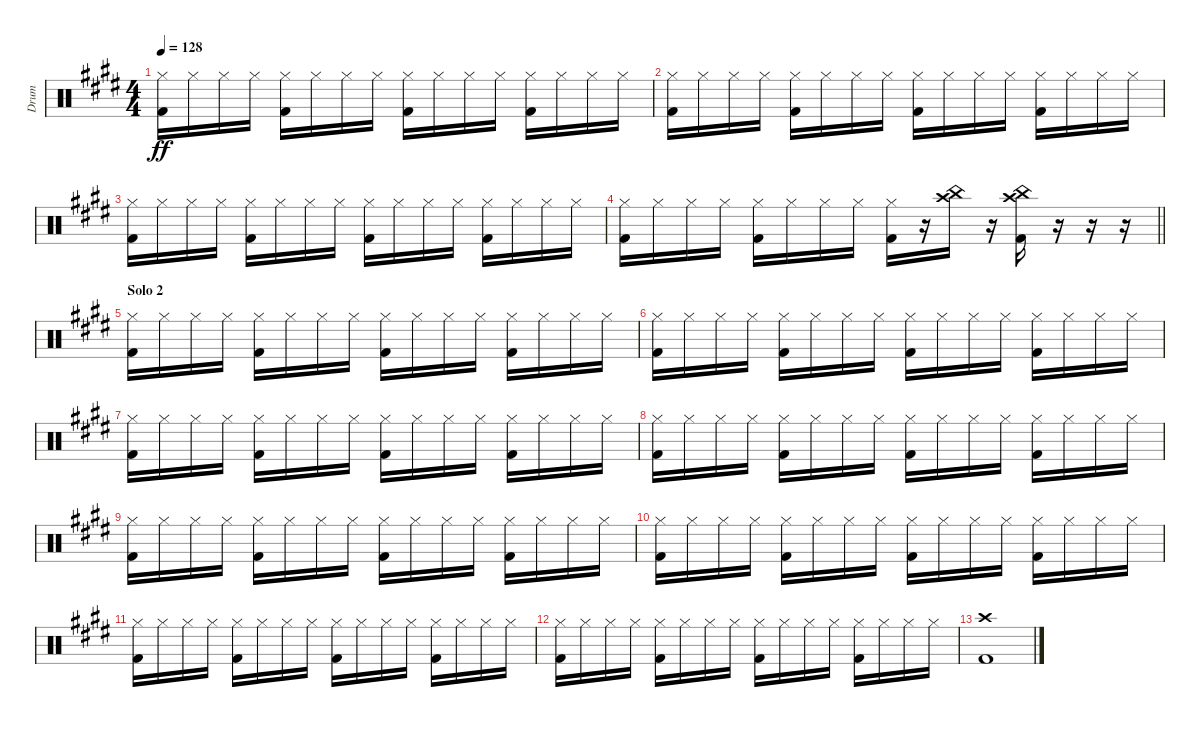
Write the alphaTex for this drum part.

\track ("Drum" "Drum") {instrument percussion}
\staff {score}
\articulation defaults
\ts (4 4)
\tempo 128
\clef neutral
\ks c#minor
("Hi-Hat (closed)" "Kick (hit) 2").16{dy ff} "Hi-Hat (closed)".16 "Hi-Hat (closed)".16 "Hi-Hat (closed)".16 ("Hi-Hat (closed)" "Kick (hit) 2").16 "Hi-Hat (closed)".16 "Hi-Hat (closed)".16 "Hi-Hat (closed)".16 ("Hi-Hat (closed)" "Kick (hit) 2").16 "Hi-Hat (closed)".16 "Hi-Hat (closed)".16 "Hi-Hat (closed)".16 ("Hi-Hat (closed)" "Kick (hit) 2").16 "Hi-Hat (closed)".16 "Hi-Hat (closed)".16 "Hi-Hat (closed)".16 |
("Hi-Hat (closed)" "Kick (hit) 2").16 "Hi-Hat (closed)".16 "Hi-Hat (closed)".16 "Hi-Hat (closed)".16 ("Hi-Hat (closed)" "Kick (hit) 2").16 "Hi-Hat (closed)".16 "Hi-Hat (closed)".16 "Hi-Hat (closed)".16 ("Hi-Hat (closed)" "Kick (hit) 2").16 "Hi-Hat (closed)".16 "Hi-Hat (closed)".16 "Hi-Hat (closed)".16 ("Hi-Hat (closed)" "Kick (hit) 2").16 "Hi-Hat (closed)".16 "Hi-Hat (closed)".16 "Hi-Hat (closed)".16 |
("Hi-Hat (closed)" "Kick (hit) 2").16 "Hi-Hat (closed)".16 "Hi-Hat (closed)".16 "Hi-Hat (closed)".16 ("Hi-Hat (closed)" "Kick (hit) 2").16 "Hi-Hat (closed)".16 "Hi-Hat (closed)".16 "Hi-Hat (closed)".16 ("Hi-Hat (closed)" "Kick (hit) 2").16 "Hi-Hat (closed)".16 "Hi-Hat (closed)".16 "Hi-Hat (closed)".16 ("Hi-Hat (closed)" "Kick (hit) 2").16 "Hi-Hat (closed)".16 "Hi-Hat (closed)".16 "Hi-Hat (closed)".16 |
\barLineRight lightlight
("Hi-Hat (closed)" "Kick (hit) 2").16 "Hi-Hat (closed)".16 "Hi-Hat (closed)".16 "Hi-Hat (closed)".16 ("Hi-Hat (closed)" "Kick (hit) 2").16 "Hi-Hat (closed)".16 "Hi-Hat (closed)".16 "Hi-Hat (closed)".16 ("Hi-Hat (closed)" "Kick (hit) 2").16 r.16 ("Crash high (hit)" "China (hit)").16 r.16 ("Crash high (hit)" "China (hit)" "Kick (hit) 2").16 r.16 r.16 r.16 |
\section ("" "Solo 2")
("Hi-Hat (closed)" "Kick (hit) 2").16 "Hi-Hat (closed)".16 "Hi-Hat (closed)".16 "Hi-Hat (closed)".16 ("Hi-Hat (closed)" "Kick (hit) 2").16 "Hi-Hat (closed)".16 "Hi-Hat (closed)".16 "Hi-Hat (closed)".16 ("Hi-Hat (closed)" "Kick (hit) 2").16 "Hi-Hat (closed)".16 "Hi-Hat (closed)".16 "Hi-Hat (closed)".16 ("Hi-Hat (closed)" "Kick (hit) 2").16 "Hi-Hat (closed)".16 "Hi-Hat (closed)".16 "Hi-Hat (closed)".16 |
("Hi-Hat (closed)" "Kick (hit) 2").16 "Hi-Hat (closed)".16 "Hi-Hat (closed)".16 "Hi-Hat (closed)".16 ("Hi-Hat (closed)" "Kick (hit) 2").16 "Hi-Hat (closed)".16 "Hi-Hat (closed)".16 "Hi-Hat (closed)".16 ("Hi-Hat (closed)" "Kick (hit) 2").16 "Hi-Hat (closed)".16 "Hi-Hat (closed)".16 "Hi-Hat (closed)".16 ("Hi-Hat (closed)" "Kick (hit) 2").16 "Hi-Hat (closed)".16 "Hi-Hat (closed)".16 "Hi-Hat (closed)".16 |
("Hi-Hat (closed)" "Kick (hit) 2").16 "Hi-Hat (closed)".16 "Hi-Hat (closed)".16 "Hi-Hat (closed)".16 ("Hi-Hat (closed)" "Kick (hit) 2").16 "Hi-Hat (closed)".16 "Hi-Hat (closed)".16 "Hi-Hat (closed)".16 ("Hi-Hat (closed)" "Kick (hit) 2").16 "Hi-Hat (closed)".16 "Hi-Hat (closed)".16 "Hi-Hat (closed)".16 ("Hi-Hat (closed)" "Kick (hit) 2").16 "Hi-Hat (closed)".16 "Hi-Hat (closed)".16 "Hi-Hat (closed)".16 |
("Hi-Hat (closed)" "Kick (hit) 2").16 "Hi-Hat (closed)".16 "Hi-Hat (closed)".16 "Hi-Hat (closed)".16 ("Hi-Hat (closed)" "Kick (hit) 2").16 "Hi-Hat (closed)".16 "Hi-Hat (closed)".16 "Hi-Hat (closed)".16 ("Hi-Hat (closed)" "Kick (hit) 2").16 "Hi-Hat (closed)".16 "Hi-Hat (closed)".16 "Hi-Hat (closed)".16 ("Hi-Hat (closed)" "Kick (hit) 2").16 "Hi-Hat (closed)".16 "Hi-Hat (closed)".16 "Hi-Hat (closed)".16 |
("Hi-Hat (closed)" "Kick (hit) 2").16 "Hi-Hat (closed)".16 "Hi-Hat (closed)".16 "Hi-Hat (closed)".16 ("Hi-Hat (closed)" "Kick (hit) 2").16 "Hi-Hat (closed)".16 "Hi-Hat (closed)".16 "Hi-Hat (closed)".16 ("Hi-Hat (closed)" "Kick (hit) 2").16 "Hi-Hat (closed)".16 "Hi-Hat (closed)".16 "Hi-Hat (closed)".16 ("Hi-Hat (closed)" "Kick (hit) 2").16 "Hi-Hat (closed)".16 "Hi-Hat (closed)".16 "Hi-Hat (closed)".16 |
("Hi-Hat (closed)" "Kick (hit) 2").16 "Hi-Hat (closed)".16 "Hi-Hat (closed)".16 "Hi-Hat (closed)".16 ("Hi-Hat (closed)" "Kick (hit) 2").16 "Hi-Hat (closed)".16 "Hi-Hat (closed)".16 "Hi-Hat (closed)".16 ("Hi-Hat (closed)" "Kick (hit) 2").16 "Hi-Hat (closed)".16 "Hi-Hat (closed)".16 "Hi-Hat (closed)".16 ("Hi-Hat (closed)" "Kick (hit) 2").16 "Hi-Hat (closed)".16 "Hi-Hat (closed)".16 "Hi-Hat (closed)".16 |
("Hi-Hat (closed)" "Kick (hit) 2").16 "Hi-Hat (closed)".16 "Hi-Hat (closed)".16 "Hi-Hat (closed)".16 ("Hi-Hat (closed)" "Kick (hit) 2").16 "Hi-Hat (closed)".16 "Hi-Hat (closed)".16 "Hi-Hat (closed)".16 ("Hi-Hat (closed)" "Kick (hit) 2").16 "Hi-Hat (closed)".16 "Hi-Hat (closed)".16 "Hi-Hat (closed)".16 ("Hi-Hat (closed)" "Kick (hit) 2").16 "Hi-Hat (closed)".16 "Hi-Hat (closed)".16 "Hi-Hat (closed)".16 |
("Hi-Hat (closed)" "Kick (hit) 2").16 "Hi-Hat (closed)".16 "Hi-Hat (closed)".16 "Hi-Hat (closed)".16 ("Hi-Hat (closed)" "Kick (hit) 2").16 "Hi-Hat (closed)".16 "Hi-Hat (closed)".16 "Hi-Hat (closed)".16 ("Hi-Hat (closed)" "Kick (hit) 2").16 "Hi-Hat (closed)".16 "Hi-Hat (closed)".16 "Hi-Hat (closed)".16 ("Hi-Hat (closed)" "Kick (hit) 2").16 "Hi-Hat (closed)".16 "Hi-Hat (closed)".16 "Hi-Hat (closed)".16 |
("Crash high (hit)" "Kick (hit) 2").1
